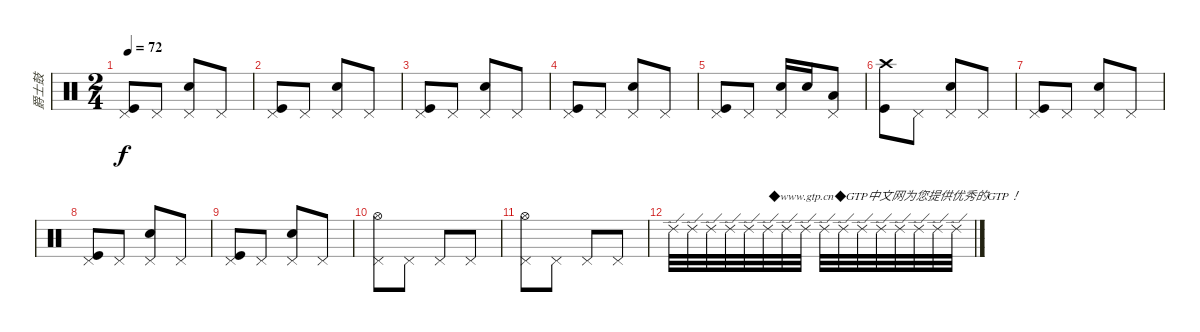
\track ("爵士鼓" "爵士鼓") {instrument percussion}
\staff {score}
\articulation defaults
\ts (2 4)
\tempo 72
\clef neutral
\ks c
("Pedal Hi-Hat (hit)" "Kick (hit)").8{dy f} "Pedal Hi-Hat (hit)".8 ("Pedal Hi-Hat (hit)" "Electric Snare (hit)").8 "Pedal Hi-Hat (hit)".8 |
("Pedal Hi-Hat (hit)" "Kick (hit)").8 "Pedal Hi-Hat (hit)".8 ("Pedal Hi-Hat (hit)" "Electric Snare (hit)").8 "Pedal Hi-Hat (hit)".8 |
("Pedal Hi-Hat (hit)" "Kick (hit)").8 "Pedal Hi-Hat (hit)".8 ("Pedal Hi-Hat (hit)" "Electric Snare (hit)").8 "Pedal Hi-Hat (hit)".8 |
("Pedal Hi-Hat (hit)" "Kick (hit)").8 "Pedal Hi-Hat (hit)".8 ("Pedal Hi-Hat (hit)" "Electric Snare (hit)").8 "Pedal Hi-Hat (hit)".8 |
("Pedal Hi-Hat (hit)" "Kick (hit)").8 "Pedal Hi-Hat (hit)".8 ("Pedal Hi-Hat (hit)" "Electric Snare (hit)").16 "Electric Snare (hit)".16 ("Pedal Hi-Hat (hit)" "Low Floor Tom (hit)").8 |
("Crash high (hit)" "Kick (hit)").8 "Pedal Hi-Hat (hit)".8 ("Pedal Hi-Hat (hit)" "Electric Snare (hit)").8 "Pedal Hi-Hat (hit)".8 |
("Pedal Hi-Hat (hit)" "Kick (hit)").8 "Pedal Hi-Hat (hit)".8 ("Pedal Hi-Hat (hit)" "Electric Snare (hit)").8 "Pedal Hi-Hat (hit)".8 |
("Pedal Hi-Hat (hit)" "Kick (hit)").8 "Pedal Hi-Hat (hit)".8 ("Pedal Hi-Hat (hit)" "Electric Snare (hit)").8 "Pedal Hi-Hat (hit)".8 |
("Pedal Hi-Hat (hit)" "Kick (hit)").8 "Pedal Hi-Hat (hit)".8 ("Pedal Hi-Hat (hit)" "Electric Snare (hit)").8 "Pedal Hi-Hat (hit)".8 |
("Pedal Hi-Hat (hit)" "Hi-Hat (open)").8 "Pedal Hi-Hat (hit)".8 "Pedal Hi-Hat (hit)".8 "Pedal Hi-Hat (hit)".8 |
("Pedal Hi-Hat (hit)" "Hi-Hat (open)").8 "Pedal Hi-Hat (hit)".8 "Pedal Hi-Hat (hit)".8 "Pedal Hi-Hat (hit)".8 |
"Ride (edge) 2".32 "Ride (edge) 2".32 "Ride (edge) 2".32 "Ride (edge) 2".32 "Ride (edge) 2".32 "Ride (edge) 2".32{txt "◆www.gtp.cn◆GTP中文网为您提供优秀的GTP！"} "Ride (edge) 2".32 "Ride (edge) 2".32 "Ride (edge) 2".32 "Ride (edge) 2".32 "Ride (edge) 2".32 "Ride (edge) 2".32 "Ride (edge) 2".32 "Ride (edge) 2".32 "Ride (edge) 2".32 "Ride (edge) 2".32
